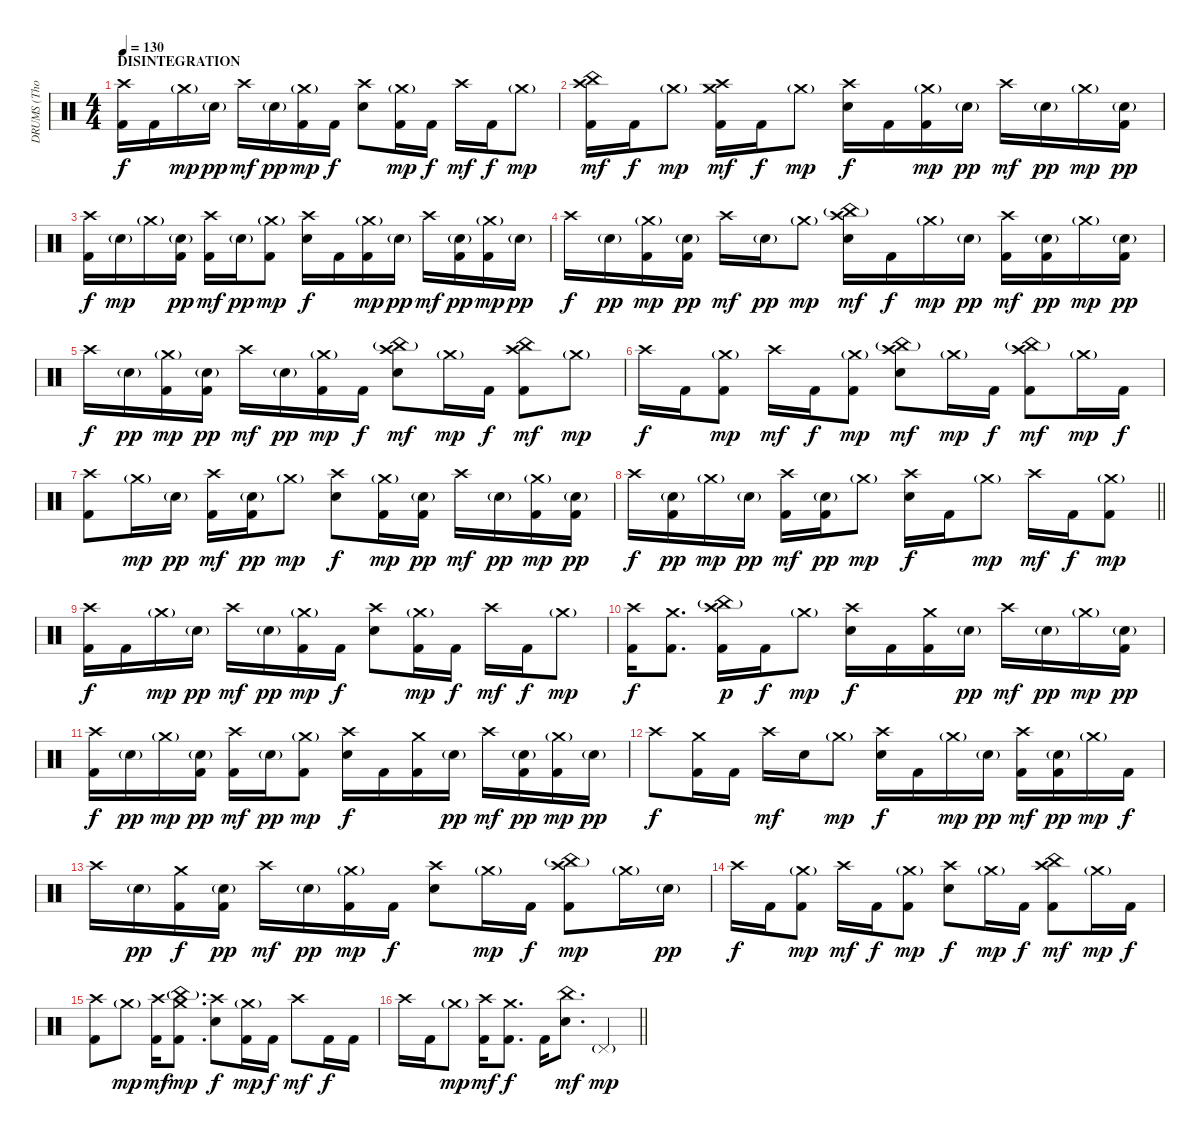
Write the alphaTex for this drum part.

\track ("DRUMS (Thomas Haake)" "DRUMS (Tho") {instrument percussion}
\staff {score}
\articulation defaults
\ts (4 4)
\section ("" "DISINTEGRATION")
\tempo 130
\clef neutral
\ks c
("Crash high (hit)" "Kick (hit) 2").16{dy f} "Kick (hit) 2".16 "Crash medium (hit)"{g}.16{dy mp} "Electric Snare (hit)"{g}.16{dy pp} "Crash high (hit)".16{dy mf} "Electric Snare (hit)"{g}.16{dy pp} ("Crash medium (hit)"{g} "Kick (hit) 2").16{dy mp} "Kick (hit) 2".16{dy f} ("Crash high (hit)" "Electric Snare (hit)").8 ("Crash medium (hit)"{g} "Kick (hit) 2").16{dy mp} "Kick (hit) 2".16{dy f} "Crash high (hit)".16{dy mf} "Kick (hit) 2".16{dy f} "Crash medium (hit)"{g}.8{dy mp} |
("Crash high (hit)" "China (hit)" "Kick (hit) 2").16{dy mf} "Kick (hit) 2".16{dy f} "Crash medium (hit)"{g}.8{dy mp} ("Crash high (hit)" "Crash medium (hit)" "Kick (hit) 2").16{dy mf} "Kick (hit) 2".16{dy f} "Crash medium (hit)"{g}.8{dy mp} ("Crash high (hit)" "Electric Snare (hit)").16{dy f} "Kick (hit) 2".16 ("Crash medium (hit)"{g} "Kick (hit) 2").16{dy mp} "Electric Snare (hit)"{g}.16{dy pp} "Crash high (hit)".16{dy mf} "Electric Snare (hit)"{g}.16{dy pp} "Crash medium (hit)"{g}.16{dy mp} ("Electric Snare (hit)"{g} "Kick (hit) 2").16{dy pp} |
("Crash high (hit)" "Kick (hit) 2").16{dy f} "Electric Snare (hit)"{g}.16{dy mp} "Crash medium (hit)"{g}.16 ("Electric Snare (hit)"{g} "Kick (hit) 2").16{dy pp} ("Crash high (hit)" "Kick (hit) 2").16{dy mf} "Electric Snare (hit)"{g}.16{dy pp} ("Crash medium (hit)"{g} "Kick (hit) 2").8{dy mp} ("Crash high (hit)" "Electric Snare (hit)").16{dy f} "Kick (hit) 2".16 ("Crash medium (hit)"{g} "Kick (hit) 2").16{dy mp} "Electric Snare (hit)"{g}.16{dy pp} "Crash high (hit)".16{dy mf} ("Electric Snare (hit)"{g} "Kick (hit) 2").16{dy pp} ("Crash medium (hit)"{g} "Kick (hit) 2").16{dy mp} "Electric Snare (hit)"{g}.16{dy pp} |
"Crash high (hit)".16{dy f} "Electric Snare (hit)"{g}.16{dy pp} ("Crash medium (hit)"{g} "Kick (hit) 2").16{dy mp} ("Electric Snare (hit)"{g} "Kick (hit) 2").16{dy pp} "Crash high (hit)".16{dy mf} "Electric Snare (hit)"{g}.16{dy pp} "Crash medium (hit)"{g}.8{dy mp} ("Crash high (hit)" "China (hit)"{g} "Electric Snare (hit)").16{dy mf} "Kick (hit) 2".16{dy f} "Crash medium (hit)"{g}.16{dy mp} "Electric Snare (hit)"{g}.16{dy pp} ("Crash high (hit)" "Kick (hit) 2").16{dy mf} ("Electric Snare (hit)"{g} "Kick (hit) 2").16{dy pp} "Crash medium (hit)"{g}.16{dy mp} ("Electric Snare (hit)"{g} "Kick (hit) 2").16{dy pp} |
"Crash high (hit)".16{dy f} "Electric Snare (hit)"{g}.16{dy pp} ("Crash medium (hit)"{g} "Kick (hit) 2").16{dy mp} ("Electric Snare (hit)"{g} "Kick (hit) 2").16{dy pp} "Crash high (hit)".16{dy mf} "Electric Snare (hit)"{g}.16{dy pp} ("Crash medium (hit)"{g} "Kick (hit) 2").16{dy mp} "Kick (hit) 2".16{dy f} ("Crash high (hit)" "China (hit)"{g} "Electric Snare (hit)").8{dy mf} "Crash medium (hit)"{g}.16{dy mp} "Kick (hit) 2".16{dy f} ("Crash high (hit)" "China (hit)" "Kick (hit) 2").8{dy mf} "Crash medium (hit)"{g}.8{dy mp} |
"Crash high (hit)".16{dy f} "Kick (hit) 2".16 ("Crash medium (hit)"{g} "Kick (hit) 2").8{dy mp} "Crash high (hit)".16{dy mf} "Kick (hit) 2".16{dy f} ("Crash medium (hit)"{g} "Kick (hit) 2").8{dy mp} ("Crash high (hit)" "China (hit)"{g} "Electric Snare (hit)").8{dy mf} "Crash medium (hit)"{g}.16{dy mp} "Kick (hit) 2".16{dy f} ("Crash high (hit)" "China (hit)"{g} "Kick (hit) 2").8{dy mf} "Crash medium (hit)"{g}.16{dy mp} "Kick (hit) 2".16{dy f} |
("Crash high (hit)" "Kick (hit) 2").8 "Crash medium (hit)"{g}.16{dy mp} "Electric Snare (hit)"{g}.16{dy pp} ("Crash high (hit)" "Kick (hit) 2").16{dy mf} ("Electric Snare (hit)"{g} "Kick (hit) 2").16{dy pp} "Crash medium (hit)"{g}.8{dy mp} ("Crash high (hit)" "Electric Snare (hit)").8{dy f} ("Crash medium (hit)"{g} "Kick (hit) 2").16{dy mp} ("Electric Snare (hit)"{g} "Kick (hit) 2").16{dy pp} "Crash high (hit)".16{dy mf} "Electric Snare (hit)"{g}.16{dy pp} ("Crash medium (hit)"{g} "Kick (hit) 2").16{dy mp} ("Electric Snare (hit)"{g} "Kick (hit) 2").16{dy pp} |
\barLineRight lightlight "Crash high (hit)".16{dy f}
("Electric Snare (hit)"{g} "Kick (hit) 2").16{dy pp} "Crash medium (hit)"{g}.16{dy mp} "Electric Snare (hit)"{g}.16{dy pp} ("Crash high (hit)" "Kick (hit) 2").16{dy mf} ("Electric Snare (hit)"{g} "Kick (hit) 2").16{dy pp} "Crash medium (hit)"{g}.8{dy mp} ("Crash high (hit)" "Electric Snare (hit)").16{dy f} "Kick (hit) 2".16 "Crash medium (hit)"{g}.8{dy mp} "Crash high (hit)".16{dy mf} "Kick (hit) 2".16{dy f} ("Crash medium (hit)"{g} "Kick (hit) 2").8{dy mp} |
("Crash high (hit)" "Kick (hit) 2").16{dy f} "Kick (hit) 2".16 "Crash medium (hit)"{g}.16{dy mp} "Electric Snare (hit)"{g}.16{dy pp} "Crash high (hit)".16{dy mf} "Electric Snare (hit)"{g}.16{dy pp} ("Crash medium (hit)"{g} "Kick (hit) 2").16{dy mp} "Kick (hit) 2".16{dy f} ("Crash high (hit)" "Electric Snare (hit)").8 ("Crash medium (hit)"{g} "Kick (hit) 2").16{dy mp} "Kick (hit) 2".16{dy f} "Crash high (hit)".16{dy mf} "Kick (hit) 2".16{dy f} "Crash medium (hit)"{g}.8{dy mp} |
("Crash high (hit)" "Kick (hit) 2").16{dy f} ("Crash medium (hit)" "Kick (hit) 2").8{d} ("Crash high (hit)" "China (hit)"{g} "Kick (hit) 2").16{dy p} "Kick (hit) 2".16{dy f} "Crash medium (hit)"{g}.8{dy mp} ("Crash high (hit)" "Electric Snare (hit)").16{dy f} "Kick (hit) 2".16 ("Crash medium (hit)" "Kick (hit) 2").16 "Electric Snare (hit)"{g}.16{dy pp} "Crash high (hit)".16{dy mf} "Electric Snare (hit)"{g}.16{dy pp} "Crash medium (hit)"{g}.16{dy mp} ("Electric Snare (hit)"{g} "Kick (hit) 2").16{dy pp} |
("Crash high (hit)" "Kick (hit) 2").16{dy f} "Electric Snare (hit)"{g}.16{dy pp} "Crash medium (hit)"{g}.16{dy mp} ("Electric Snare (hit)"{g} "Kick (hit) 2").16{dy pp} ("Crash high (hit)" "Kick (hit) 2").16{dy mf} "Electric Snare (hit)"{g}.16{dy pp} ("Crash medium (hit)"{g} "Kick (hit) 2").8{dy mp} ("Crash high (hit)" "Electric Snare (hit)").16{dy f} "Kick (hit) 2".16 ("Crash medium (hit)" "Kick (hit) 2").16 "Electric Snare (hit)"{g}.16{dy pp} "Crash high (hit)".16{dy mf} ("Electric Snare (hit)"{g} "Kick (hit) 2").16{dy pp} ("Crash medium (hit)"{g} "Kick (hit) 2").16{dy mp} "Electric Snare (hit)"{g}.16{dy pp} |
"Crash high (hit)".8{dy f} ("Crash medium (hit)" "Kick (hit) 2").16 "Kick (hit) 2".16 "Crash high (hit)".16{dy mf} "Electric Snare (hit)".16 "Crash medium (hit)"{g}.8{dy mp} ("Crash high (hit)" "Electric Snare (hit)").16{dy f} "Kick (hit) 2".16 "Crash medium (hit)"{g}.16{dy mp} "Electric Snare (hit)"{g}.16{dy pp} ("Crash high (hit)" "Kick (hit) 2").16{dy mf} ("Electric Snare (hit)"{g} "Kick (hit) 2").16{dy pp} "Crash medium (hit)"{g}.16{dy mp} "Kick (hit) 2".16{dy f} |
"Crash high (hit)".16 "Electric Snare (hit)"{g}.16{dy pp} ("Crash medium (hit)" "Kick (hit) 2").16{dy f} ("Electric Snare (hit)"{g} "Kick (hit) 2").16{dy pp} "Crash high (hit)".16{dy mf} "Electric Snare (hit)"{g}.16{dy pp} ("Crash medium (hit)"{g} "Kick (hit) 2").16{dy mp} "Kick (hit) 2".16{dy f} ("Crash high (hit)" "Electric Snare (hit)").8 "Crash medium (hit)"{g}.16{dy mp} "Kick (hit) 2".16{dy f} ("Crash high (hit)" "China (hit)"{g} "Kick (hit) 2").8{dy mp} "Crash medium (hit)"{g}.16 "Electric Snare (hit)"{g}.16{dy pp} |
"Crash high (hit)".16{dy f} "Kick (hit) 2".16 ("Crash medium (hit)"{g} "Kick (hit) 2").8{dy mp} "Crash high (hit)".16{dy mf} "Kick (hit) 2".16{dy f} ("Crash medium (hit)"{g} "Kick (hit) 2").8{dy mp} ("Crash high (hit)" "Electric Snare (hit)").8{dy f} "Crash medium (hit)"{g}.16{dy mp} "Kick (hit) 2".16{dy f} ("Crash high (hit)" "China (hit)" "Kick (hit) 2").8{dy mf} "Crash medium (hit)"{g}.16{dy mp} "Kick (hit) 2".16{dy f} |
("Crash high (hit)" "Kick (hit) 2").8 "Crash medium (hit)"{g}.8{dy mp} ("Crash high (hit)" "Kick (hit) 2").16{dy mf} ("Crash medium (hit)" "China (hit)"{g} "Kick (hit) 2").8{d dy mp} ("Crash high (hit)" "Electric Snare (hit)").8{dy f} ("Crash medium (hit)"{g} "Kick (hit) 2").16{dy mp} "Kick (hit) 2".16{dy f} "Crash high (hit)".8{dy mf} "Kick (hit) 2".16{dy f} "Kick (hit) 2".16 |
\barLineRight lightlight "Crash high (hit)".16 "Kick (hit) 2".16 "Crash medium (hit)"{g}.8{dy mp}
("Crash high (hit)" "Kick (hit) 2").16{dy mf} ("Crash medium (hit)" "Kick (hit) 2").8{d dy f} "Kick (hit) 2".16 ("China (hit)" "Electric Snare (hit)").8{d dy mf} "Pedal Hi-Hat (hit)"{g}.4{dy mp}
